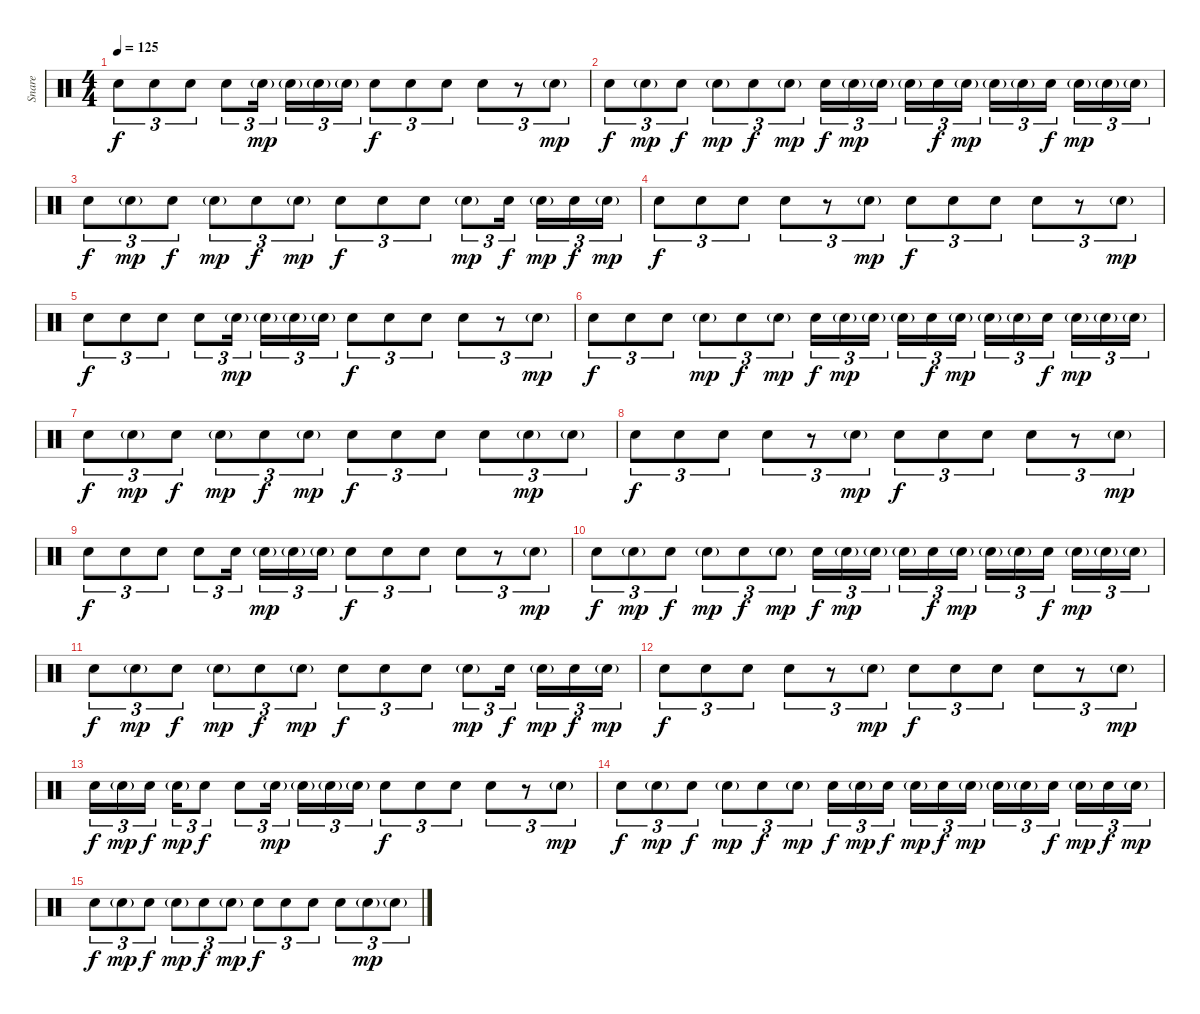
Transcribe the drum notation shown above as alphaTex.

\track ("Snare" "Snare") {instrument percussion}
\staff {score}
\articulation defaults
\ts (4 4)
\tempo 125
\clef neutral
\ks c "Electric Snare (hit)".8{tu (3 2) dy f} "Electric Snare (hit)".8{tu (3 2)} "Electric Snare (hit)".8{tu (3 2)} "Electric Snare (hit)".8{tu (3 2)} "Electric Snare (hit)"{g}.16{tu (3 2) dy mp beam splitsecondary} "Electric Snare (hit)"{g}.16{tu (3 2)} "Electric Snare (hit)"{g}.16{tu (3 2)} "Electric Snare (hit)"{g}.16{tu (3 2)} "Electric Snare (hit)".8{tu (3 2) dy f} "Electric Snare (hit)".8{tu (3 2)} "Electric Snare (hit)".8{tu (3 2)} "Electric Snare (hit)".8{tu (3 2)}
r.8{tu (3 2)} "Electric Snare (hit)"{g}.8{tu (3 2) dy mp} |
"Electric Snare (hit)".8{tu (3 2) dy f} "Electric Snare (hit)"{g}.8{tu (3 2) dy mp} "Electric Snare (hit)".8{tu (3 2) dy f} "Electric Snare (hit)"{g}.8{tu (3 2) dy mp} "Electric Snare (hit)".8{tu (3 2) dy f} "Electric Snare (hit)"{g}.8{tu (3 2) dy mp} "Electric Snare (hit)".16{tu (3 2) dy f} "Electric Snare (hit)"{g}.16{tu (3 2) dy mp} "Electric Snare (hit)"{g}.16{tu (3 2) beam splitsecondary} "Electric Snare (hit)"{g}.16{tu (3 2)} "Electric Snare (hit)".16{tu (3 2) dy f} "Electric Snare (hit)"{g}.16{tu (3 2) dy mp} "Electric Snare (hit)"{g}.16{tu (3 2)} "Electric Snare (hit)"{g}.16{tu (3 2)} "Electric Snare (hit)".16{tu (3 2) dy f beam splitsecondary} "Electric Snare (hit)"{g}.16{tu (3 2) dy mp} "Electric Snare (hit)"{g}.16{tu (3 2)} "Electric Snare (hit)"{g}.16{tu (3 2)} |
"Electric Snare (hit)".8{tu (3 2) dy f} "Electric Snare (hit)"{g}.8{tu (3 2) dy mp} "Electric Snare (hit)".8{tu (3 2) dy f} "Electric Snare (hit)"{g}.8{tu (3 2) dy mp} "Electric Snare (hit)".8{tu (3 2) dy f} "Electric Snare (hit)"{g}.8{tu (3 2) dy mp} "Electric Snare (hit)".8{tu (3 2) dy f} "Electric Snare (hit)".8{tu (3 2)} "Electric Snare (hit)".8{tu (3 2)} "Electric Snare (hit)"{g}.8{tu (3 2) dy mp} "Electric Snare (hit)".16{tu (3 2) dy f beam splitsecondary} "Electric Snare (hit)"{g}.16{tu (3 2) dy mp} "Electric Snare (hit)".16{tu (3 2) dy f} "Electric Snare (hit)"{g}.16{tu (3 2) dy mp} |
"Electric Snare (hit)".8{tu (3 2) dy f} "Electric Snare (hit)".8{tu (3 2)} "Electric Snare (hit)".8{tu (3 2)} "Electric Snare (hit)".8{tu (3 2)} r.8{tu (3 2)} "Electric Snare (hit)"{g}.8{tu (3 2) dy mp} "Electric Snare (hit)".8{tu (3 2) dy f} "Electric Snare (hit)".8{tu (3 2)} "Electric Snare (hit)".8{tu (3 2)} "Electric Snare (hit)".8{tu (3 2)} r.8{tu (3 2)} "Electric Snare (hit)"{g}.8{tu (3 2) dy mp} |
"Electric Snare (hit)".8{tu (3 2) dy f} "Electric Snare (hit)".8{tu (3 2)} "Electric Snare (hit)".8{tu (3 2)} "Electric Snare (hit)".8{tu (3 2)} "Electric Snare (hit)"{g}.16{tu (3 2) dy mp beam splitsecondary} "Electric Snare (hit)"{g}.16{tu (3 2)} "Electric Snare (hit)"{g}.16{tu (3 2)} "Electric Snare (hit)"{g}.16{tu (3 2)} "Electric Snare (hit)".8{tu (3 2) dy f} "Electric Snare (hit)".8{tu (3 2)} "Electric Snare (hit)".8{tu (3 2)} "Electric Snare (hit)".8{tu (3 2)} r.8{tu (3 2)} "Electric Snare (hit)"{g}.8{tu (3 2) dy mp} |
"Electric Snare (hit)".8{tu (3 2) dy f} "Electric Snare (hit)".8{tu (3 2)} "Electric Snare (hit)".8{tu (3 2)} "Electric Snare (hit)"{g}.8{tu (3 2) dy mp} "Electric Snare (hit)".8{tu (3 2) dy f} "Electric Snare (hit)"{g}.8{tu (3 2) dy mp} "Electric Snare (hit)".16{tu (3 2) dy f} "Electric Snare (hit)"{g}.16{tu (3 2) dy mp} "Electric Snare (hit)"{g}.16{tu (3 2) beam splitsecondary} "Electric Snare (hit)"{g}.16{tu (3 2)} "Electric Snare (hit)".16{tu (3 2) dy f} "Electric Snare (hit)"{g}.16{tu (3 2) dy mp} "Electric Snare (hit)"{g}.16{tu (3 2)} "Electric Snare (hit)"{g}.16{tu (3 2)} "Electric Snare (hit)".16{tu (3 2) dy f beam splitsecondary} "Electric Snare (hit)"{g}.16{tu (3 2) dy mp} "Electric Snare (hit)"{g}.16{tu (3 2)} "Electric Snare (hit)"{g}.16{tu (3 2)} |
"Electric Snare (hit)".8{tu (3 2) dy f} "Electric Snare (hit)"{g}.8{tu (3 2) dy mp} "Electric Snare (hit)".8{tu (3 2) dy f} "Electric Snare (hit)"{g}.8{tu (3 2) dy mp} "Electric Snare (hit)".8{tu (3 2) dy f} "Electric Snare (hit)"{g}.8{tu (3 2) dy mp} "Electric Snare (hit)".8{tu (3 2) dy f} "Electric Snare (hit)".8{tu (3 2)} "Electric Snare (hit)".8{tu (3 2)} "Electric Snare (hit)".8{tu (3 2)} "Electric Snare (hit)"{g}.8{tu (3 2) dy mp} "Electric Snare (hit)"{g}.8{tu (3 2)} |
"Electric Snare (hit)".8{tu (3 2) dy f} "Electric Snare (hit)".8{tu (3 2)} "Electric Snare (hit)".8{tu (3 2)} "Electric Snare (hit)".8{tu (3 2)} r.8{tu (3 2)} "Electric Snare (hit)"{g}.8{tu (3 2) dy mp} "Electric Snare (hit)".8{tu (3 2) dy f} "Electric Snare (hit)".8{tu (3 2)} "Electric Snare (hit)".8{tu (3 2)} "Electric Snare (hit)".8{tu (3 2)} r.8{tu (3 2)} "Electric Snare (hit)"{g}.8{tu (3 2) dy mp} |
"Electric Snare (hit)".8{tu (3 2) dy f} "Electric Snare (hit)".8{tu (3 2)} "Electric Snare (hit)".8{tu (3 2)} "Electric Snare (hit)".8{tu (3 2)} "Electric Snare (hit)".16{tu (3 2) beam splitsecondary} "Electric Snare (hit)"{g}.16{tu (3 2) dy mp} "Electric Snare (hit)"{g}.16{tu (3 2)} "Electric Snare (hit)"{g}.16{tu (3 2)} "Electric Snare (hit)".8{tu (3 2) dy f} "Electric Snare (hit)".8{tu (3 2)} "Electric Snare (hit)".8{tu (3 2)} "Electric Snare (hit)".8{tu (3 2)} r.8{tu (3 2)} "Electric Snare (hit)"{g}.8{tu (3 2) dy mp} |
"Electric Snare (hit)".8{tu (3 2) dy f} "Electric Snare (hit)"{g}.8{tu (3 2) dy mp} "Electric Snare (hit)".8{tu (3 2) dy f} "Electric Snare (hit)"{g}.8{tu (3 2) dy mp} "Electric Snare (hit)".8{tu (3 2) dy f} "Electric Snare (hit)"{g}.8{tu (3 2) dy mp} "Electric Snare (hit)".16{tu (3 2) dy f} "Electric Snare (hit)"{g}.16{tu (3 2) dy mp} "Electric Snare (hit)"{g}.16{tu (3 2) beam splitsecondary} "Electric Snare (hit)"{g}.16{tu (3 2)} "Electric Snare (hit)".16{tu (3 2) dy f} "Electric Snare (hit)"{g}.16{tu (3 2) dy mp} "Electric Snare (hit)"{g}.16{tu (3 2)} "Electric Snare (hit)"{g}.16{tu (3 2)} "Electric Snare (hit)".16{tu (3 2) dy f beam splitsecondary} "Electric Snare (hit)"{g}.16{tu (3 2) dy mp} "Electric Snare (hit)"{g}.16{tu (3 2)} "Electric Snare (hit)"{g}.16{tu (3 2)} |
"Electric Snare (hit)".8{tu (3 2) dy f} "Electric Snare (hit)"{g}.8{tu (3 2) dy mp} "Electric Snare (hit)".8{tu (3 2) dy f} "Electric Snare (hit)"{g}.8{tu (3 2) dy mp} "Electric Snare (hit)".8{tu (3 2) dy f} "Electric Snare (hit)"{g}.8{tu (3 2) dy mp} "Electric Snare (hit)".8{tu (3 2) dy f} "Electric Snare (hit)".8{tu (3 2)} "Electric Snare (hit)".8{tu (3 2)} "Electric Snare (hit)"{g}.8{tu (3 2) dy mp} "Electric Snare (hit)".16{tu (3 2) dy f beam splitsecondary} "Electric Snare (hit)"{g}.16{tu (3 2) dy mp} "Electric Snare (hit)".16{tu (3 2) dy f} "Electric Snare (hit)"{g}.16{tu (3 2) dy mp} |
"Electric Snare (hit)".8{tu (3 2) dy f} "Electric Snare (hit)".8{tu (3 2)} "Electric Snare (hit)".8{tu (3 2)} "Electric Snare (hit)".8{tu (3 2)} r.8{tu (3 2)} "Electric Snare (hit)"{g}.8{tu (3 2) dy mp} "Electric Snare (hit)".8{tu (3 2) dy f} "Electric Snare (hit)".8{tu (3 2)} "Electric Snare (hit)".8{tu (3 2)} "Electric Snare (hit)".8{tu (3 2)} r.8{tu (3 2)} "Electric Snare (hit)"{g}.8{tu (3 2) dy mp} |
"Electric Snare (hit)".16{tu (3 2) dy f} "Electric Snare (hit)"{g}.16{tu (3 2) dy mp} "Electric Snare (hit)".16{tu (3 2) dy f beam splitsecondary} "Electric Snare (hit)"{g}.16{tu (3 2) dy mp} "Electric Snare (hit)".8{tu (3 2) dy f} "Electric Snare (hit)".8{tu (3 2)} "Electric Snare (hit)"{g}.16{tu (3 2) dy mp beam splitsecondary} "Electric Snare (hit)"{g}.16{tu (3 2)} "Electric Snare (hit)"{g}.16{tu (3 2)} "Electric Snare (hit)"{g}.16{tu (3 2)} "Electric Snare (hit)".8{tu (3 2) dy f} "Electric Snare (hit)".8{tu (3 2)} "Electric Snare (hit)".8{tu (3 2)} "Electric Snare (hit)".8{tu (3 2)} r.8{tu (3 2)} "Electric Snare (hit)"{g}.8{tu (3 2) dy mp} |
"Electric Snare (hit)".8{tu (3 2) dy f} "Electric Snare (hit)"{g}.8{tu (3 2) dy mp} "Electric Snare (hit)".8{tu (3 2) dy f} "Electric Snare (hit)"{g}.8{tu (3 2) dy mp} "Electric Snare (hit)".8{tu (3 2) dy f} "Electric Snare (hit)"{g}.8{tu (3 2) dy mp} "Electric Snare (hit)".16{tu (3 2) dy f} "Electric Snare (hit)"{g}.16{tu (3 2) dy mp} "Electric Snare (hit)".16{tu (3 2) dy f beam splitsecondary} "Electric Snare (hit)"{g}.16{tu (3 2) dy mp} "Electric Snare (hit)".16{tu (3 2) dy f} "Electric Snare (hit)"{g}.16{tu (3 2) dy mp} "Electric Snare (hit)"{g}.16{tu (3 2)} "Electric Snare (hit)"{g}.16{tu (3 2)} "Electric Snare (hit)".16{tu (3 2) dy f beam splitsecondary} "Electric Snare (hit)"{g}.16{tu (3 2) dy mp} "Electric Snare (hit)".16{tu (3 2) dy f} "Electric Snare (hit)"{g}.16{tu (3 2) dy mp} |
"Electric Snare (hit)".8{tu (3 2) dy f} "Electric Snare (hit)"{g}.8{tu (3 2) dy mp} "Electric Snare (hit)".8{tu (3 2) dy f} "Electric Snare (hit)"{g}.8{tu (3 2) dy mp} "Electric Snare (hit)".8{tu (3 2) dy f} "Electric Snare (hit)"{g}.8{tu (3 2) dy mp} "Electric Snare (hit)".8{tu (3 2) dy f} "Electric Snare (hit)".8{tu (3 2)} "Electric Snare (hit)".8{tu (3 2)} "Electric Snare (hit)".8{tu (3 2)} "Electric Snare (hit)"{g}.8{tu (3 2) dy mp} "Electric Snare (hit)"{g}.8{tu (3 2)}
